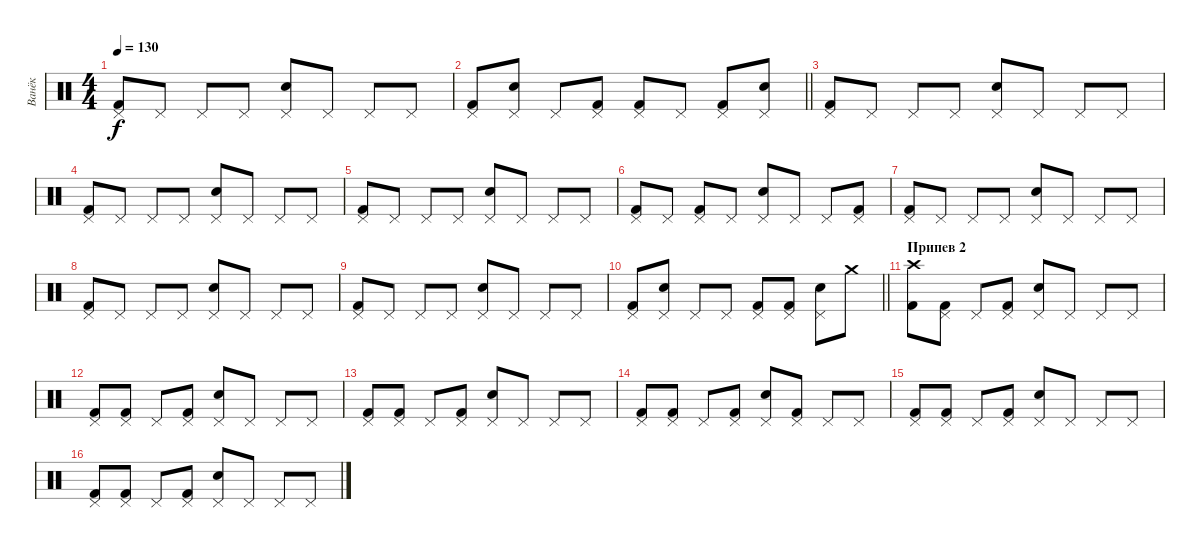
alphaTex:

\track ("Ванёк" "Ванёк") {instrument percussion}
\staff {score}
\articulation defaults
\ts (4 4)
\tempo 130
\clef neutral
\ks c
("Pedal Hi-Hat (hit)" "Kick (hit) 2").8{dy f} "Pedal Hi-Hat (hit)".8 "Pedal Hi-Hat (hit)".8 "Pedal Hi-Hat (hit)".8 ("Pedal Hi-Hat (hit)" "Snare (hit) 2").8 "Pedal Hi-Hat (hit)".8 "Pedal Hi-Hat (hit)".8 "Pedal Hi-Hat (hit)".8 |
\barLineRight lightlight
("Pedal Hi-Hat (hit)" "Kick (hit) 2").8 ("Pedal Hi-Hat (hit)" "Snare (hit) 2").8 "Pedal Hi-Hat (hit)".8 ("Pedal Hi-Hat (hit)" "Kick (hit) 2").8 ("Pedal Hi-Hat (hit)" "Kick (hit) 2").8 "Pedal Hi-Hat (hit)".8 ("Pedal Hi-Hat (hit)" "Kick (hit) 2").8 ("Pedal Hi-Hat (hit)" "Snare (hit) 2").8 |
("Pedal Hi-Hat (hit)" "Kick (hit) 2").8 "Pedal Hi-Hat (hit)".8 "Pedal Hi-Hat (hit)".8 "Pedal Hi-Hat (hit)".8 ("Pedal Hi-Hat (hit)" "Snare (hit) 2").8 "Pedal Hi-Hat (hit)".8 "Pedal Hi-Hat (hit)".8 "Pedal Hi-Hat (hit)".8 |
("Pedal Hi-Hat (hit)" "Kick (hit) 2").8 "Pedal Hi-Hat (hit)".8 "Pedal Hi-Hat (hit)".8 "Pedal Hi-Hat (hit)".8 ("Pedal Hi-Hat (hit)" "Snare (hit) 2").8 "Pedal Hi-Hat (hit)".8 "Pedal Hi-Hat (hit)".8 "Pedal Hi-Hat (hit)".8 |
("Pedal Hi-Hat (hit)" "Kick (hit) 2").8 "Pedal Hi-Hat (hit)".8 "Pedal Hi-Hat (hit)".8 "Pedal Hi-Hat (hit)".8 ("Pedal Hi-Hat (hit)" "Snare (hit) 2").8 "Pedal Hi-Hat (hit)".8 "Pedal Hi-Hat (hit)".8 "Pedal Hi-Hat (hit)".8 |
("Pedal Hi-Hat (hit)" "Kick (hit) 2").8 "Pedal Hi-Hat (hit)".8 ("Pedal Hi-Hat (hit)" "Kick (hit) 2").8 "Pedal Hi-Hat (hit)".8 ("Pedal Hi-Hat (hit)" "Snare (hit) 2").8 "Pedal Hi-Hat (hit)".8 "Pedal Hi-Hat (hit)".8 ("Pedal Hi-Hat (hit)" "Kick (hit) 2").8 |
("Pedal Hi-Hat (hit)" "Kick (hit) 2").8 "Pedal Hi-Hat (hit)".8 "Pedal Hi-Hat (hit)".8 "Pedal Hi-Hat (hit)".8 ("Pedal Hi-Hat (hit)" "Snare (hit) 2").8 "Pedal Hi-Hat (hit)".8 "Pedal Hi-Hat (hit)".8 "Pedal Hi-Hat (hit)".8 |
("Pedal Hi-Hat (hit)" "Kick (hit) 2").8 "Pedal Hi-Hat (hit)".8 "Pedal Hi-Hat (hit)".8 "Pedal Hi-Hat (hit)".8 ("Pedal Hi-Hat (hit)" "Snare (hit) 2").8 "Pedal Hi-Hat (hit)".8 "Pedal Hi-Hat (hit)".8 "Pedal Hi-Hat (hit)".8 |
("Pedal Hi-Hat (hit)" "Kick (hit) 2").8 "Pedal Hi-Hat (hit)".8 "Pedal Hi-Hat (hit)".8 "Pedal Hi-Hat (hit)".8 ("Pedal Hi-Hat (hit)" "Snare (hit) 2").8 "Pedal Hi-Hat (hit)".8 "Pedal Hi-Hat (hit)".8 "Pedal Hi-Hat (hit)".8 |
\barLineRight lightlight
("Pedal Hi-Hat (hit)" "Kick (hit) 2").8 ("Pedal Hi-Hat (hit)" "Snare (hit) 2").8 "Pedal Hi-Hat (hit)".8 "Pedal Hi-Hat (hit)".8 ("Pedal Hi-Hat (hit)" "Kick (hit) 2").8 ("Pedal Hi-Hat (hit)" "Kick (hit) 2").8 ("Pedal Hi-Hat (hit)" "Snare (hit) 2").8 "Crash medium (hit)".8 |
\section ("" "Припев 2")
("Crash high (hit)" "Kick (hit) 2").8 ("Pedal Hi-Hat (hit)" "Kick (hit) 2").8 "Pedal Hi-Hat (hit)".8 ("Pedal Hi-Hat (hit)" "Kick (hit) 2").8 ("Pedal Hi-Hat (hit)" "Snare (hit) 2").8 "Pedal Hi-Hat (hit)".8 "Pedal Hi-Hat (hit)".8 "Pedal Hi-Hat (hit)".8 |
("Pedal Hi-Hat (hit)" "Kick (hit) 2").8 ("Pedal Hi-Hat (hit)" "Kick (hit) 2").8 "Pedal Hi-Hat (hit)".8 ("Pedal Hi-Hat (hit)" "Kick (hit) 2").8 ("Pedal Hi-Hat (hit)" "Snare (hit) 2").8 "Pedal Hi-Hat (hit)".8 "Pedal Hi-Hat (hit)".8 "Pedal Hi-Hat (hit)".8 |
("Pedal Hi-Hat (hit)" "Kick (hit) 2").8 ("Pedal Hi-Hat (hit)" "Kick (hit) 2").8 "Pedal Hi-Hat (hit)".8 ("Pedal Hi-Hat (hit)" "Kick (hit) 2").8 ("Pedal Hi-Hat (hit)" "Snare (hit) 2").8 "Pedal Hi-Hat (hit)".8 "Pedal Hi-Hat (hit)".8 "Pedal Hi-Hat (hit)".8 |
("Pedal Hi-Hat (hit)" "Kick (hit) 2").8 ("Pedal Hi-Hat (hit)" "Kick (hit) 2").8 "Pedal Hi-Hat (hit)".8 ("Pedal Hi-Hat (hit)" "Kick (hit) 2").8 ("Pedal Hi-Hat (hit)" "Snare (hit) 2").8 ("Pedal Hi-Hat (hit)" "Kick (hit) 2").8 "Pedal Hi-Hat (hit)".8 "Pedal Hi-Hat (hit)".8 |
("Pedal Hi-Hat (hit)" "Kick (hit) 2").8 ("Pedal Hi-Hat (hit)" "Kick (hit) 2").8 "Pedal Hi-Hat (hit)".8 ("Pedal Hi-Hat (hit)" "Kick (hit) 2").8 ("Pedal Hi-Hat (hit)" "Snare (hit) 2").8 "Pedal Hi-Hat (hit)".8 "Pedal Hi-Hat (hit)".8 "Pedal Hi-Hat (hit)".8 |
("Pedal Hi-Hat (hit)" "Kick (hit) 2").8 ("Pedal Hi-Hat (hit)" "Kick (hit) 2").8 "Pedal Hi-Hat (hit)".8 ("Pedal Hi-Hat (hit)" "Kick (hit) 2").8 ("Pedal Hi-Hat (hit)" "Snare (hit) 2").8 "Pedal Hi-Hat (hit)".8 "Pedal Hi-Hat (hit)".8 "Pedal Hi-Hat (hit)".8
